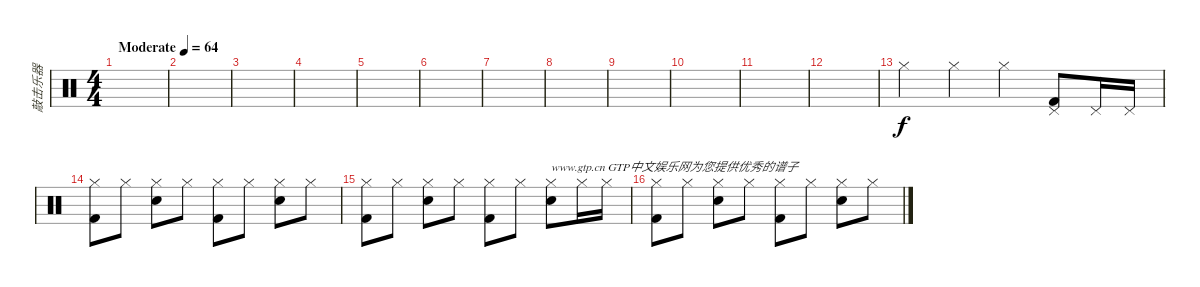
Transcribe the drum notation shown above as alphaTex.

\track ("敲击乐器" "敲击乐器") {instrument percussion}
\staff {score}
\articulation defaults
\ts (4 4)
\tempo (64 "Moderate")
\clef neutral
\ks c
|
|
|
|
|
|
|
|
|
|
|
|
"Hi-Hat (closed)".4 "Hi-Hat (closed)".4 "Hi-Hat (closed)".4 ("Kick (hit) 2" "Pedal Hi-Hat (hit)").8 "Pedal Hi-Hat (hit)".16 "Pedal Hi-Hat (hit)".16 |
("Kick (hit) 2" "Hi-Hat (closed)").8 "Hi-Hat (closed)".8 ("Hi-Hat (closed)" "Electric Snare (hit)").8 "Hi-Hat (closed)".8 ("Kick (hit) 2" "Hi-Hat (closed)").8 "Hi-Hat (closed)".8 ("Electric Snare (hit)" "Hi-Hat (closed)").8 "Hi-Hat (closed)".8 |
("Kick (hit) 2" "Hi-Hat (closed)").8 "Hi-Hat (closed)".8 ("Hi-Hat (closed)" "Electric Snare (hit)").8 "Hi-Hat (closed)".8 ("Kick (hit) 2" "Hi-Hat (closed)").8 "Hi-Hat (closed)".8 ("Electric Snare (hit)" "Hi-Hat (closed)").8{txt "www.gtp.cn GTP中文娱乐网为您提供优秀的谱子"} "Hi-Hat (closed)".16 "Hi-Hat (closed)".16 |
("Kick (hit) 2" "Hi-Hat (closed)").8 "Hi-Hat (closed)".8 ("Hi-Hat (closed)" "Electric Snare (hit)").8 "Hi-Hat (closed)".8 ("Kick (hit) 2" "Hi-Hat (closed)").8 "Hi-Hat (closed)".8 ("Electric Snare (hit)" "Hi-Hat (closed)").8 "Hi-Hat (closed)".8
